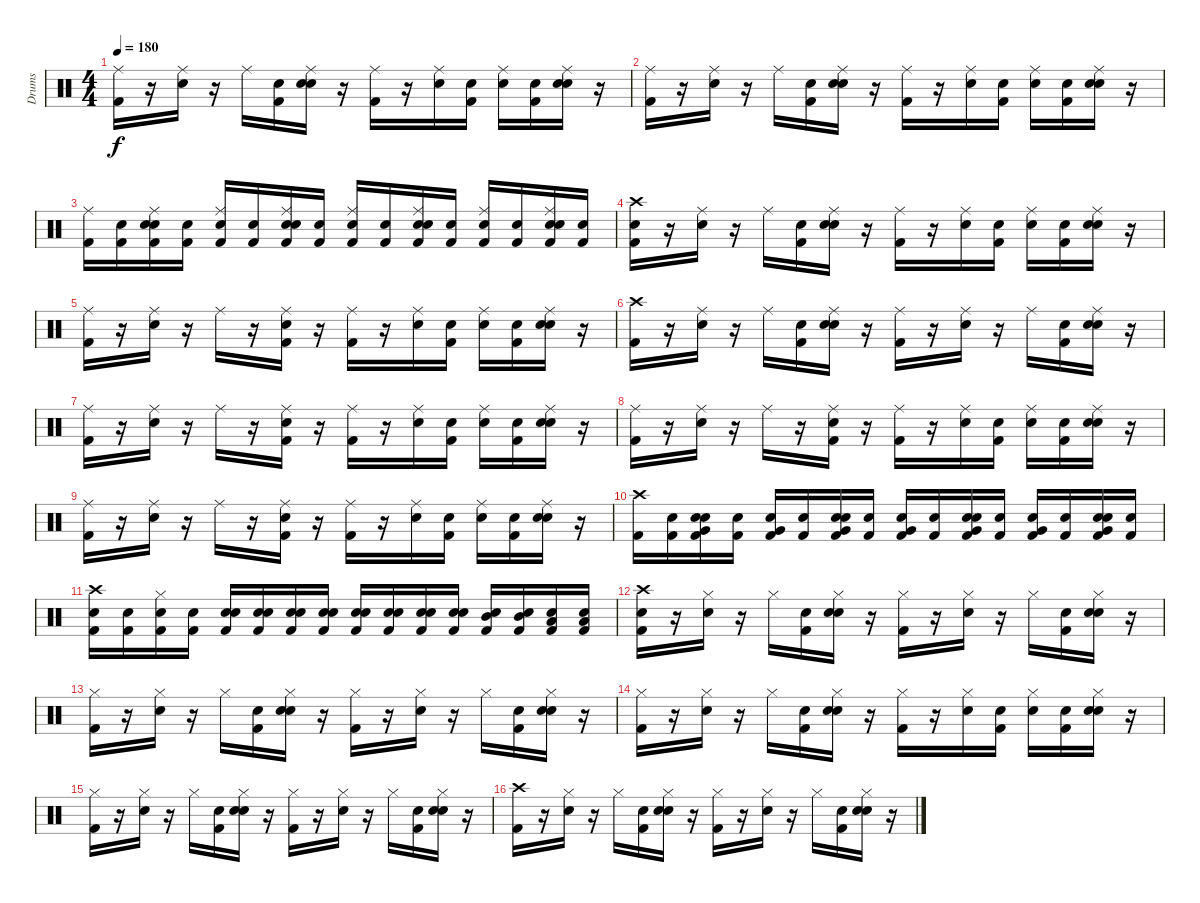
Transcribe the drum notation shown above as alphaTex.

\track ("Drums" "Drums") {instrument percussion}
\staff {score}
\articulation defaults
\ts (4 4)
\tempo 180
\clef neutral
\ks c
("Kick (hit) 2" "Ride (middle)").16{dy f} r.16 ("Snare (hit) 2" "Ride (middle)").16 r.16 "Ride (middle)".16 ("Snare (hit)" "Kick (hit) 2").16 ("Snare (hit)" "Snare (hit) 2" "Ride (middle)").16 r.16 ("Kick (hit) 2" "Ride (middle)").16 r.16 ("Snare (hit) 2" "Ride (middle)").16 ("Snare (hit)" "Kick (hit) 2").16 ("Snare (hit)" "Ride (middle)").16 ("Snare (hit)" "Kick (hit) 2").16 ("Snare (hit)" "Snare (hit) 2" "Ride (middle)").16 r.16 |
("Kick (hit) 2" "Ride (middle)").16 r.16 ("Snare (hit) 2" "Ride (middle)").16 r.16 "Ride (middle)".16 ("Snare (hit)" "Kick (hit) 2").16 ("Snare (hit)" "Snare (hit) 2" "Ride (middle)").16 r.16 ("Kick (hit) 2" "Ride (middle)").16 r.16 ("Snare (hit) 2" "Ride (middle)").16 ("Snare (hit)" "Kick (hit) 2").16 ("Snare (hit)" "Ride (middle)").16 ("Snare (hit)" "Kick (hit) 2").16 ("Snare (hit)" "Snare (hit) 2" "Ride (middle)").16 r.16 |
("Ride (middle)" "Kick (hit) 2").16 ("Snare (hit)" "Kick (hit) 2").16 ("Snare (hit)" "Snare (hit) 2" "Ride (middle)" "Kick (hit) 2").16 ("Snare (hit)" "Kick (hit) 2").16 ("Snare (hit)" "Ride (middle)" "Kick (hit) 2").16 ("Snare (hit)" "Kick (hit) 2").16 ("Snare (hit)" "Snare (hit) 2" "Ride (middle)" "Kick (hit) 2").16 ("Snare (hit)" "Kick (hit) 2").16 ("Snare (hit)" "Ride (middle)" "Kick (hit) 2").16 ("Snare (hit)" "Kick (hit) 2").16 ("Snare (hit)" "Ride (middle)" "Kick (hit) 2" "Snare (hit) 2").16 ("Snare (hit)" "Kick (hit) 2").16 ("Snare (hit)" "Ride (middle)" "Kick (hit) 2").16 ("Snare (hit)" "Kick (hit) 2").16 ("Snare (hit)" "Snare (hit) 2" "Ride (middle)" "Kick (hit) 2").16 ("Snare (hit)" "Kick (hit) 2").16 |
("Snare (hit)" "Crash high (hit)" "Kick (hit) 2").16 r.16 ("Snare (hit) 2" "Ride (middle)").16 r.16 "Ride (middle)".16 ("Snare (hit)" "Kick (hit) 2").16 ("Snare (hit)" "Snare (hit) 2" "Ride (middle)").16 r.16 ("Kick (hit) 2" "Ride (middle)").16 r.16 ("Snare (hit) 2" "Ride (middle)").16 ("Snare (hit)" "Kick (hit) 2").16 ("Snare (hit)" "Ride (middle)").16 ("Snare (hit)" "Kick (hit) 2").16 ("Snare (hit)" "Snare (hit) 2" "Ride (middle)").16 r.16 |
("Kick (hit) 2" "Ride (middle)").16 r.16 ("Snare (hit) 2" "Ride (middle)").16 r.16 "Ride (middle)".16 r.16 ("Kick (hit) 2" "Snare (hit) 2" "Ride (middle)").16 r.16 ("Kick (hit) 2" "Ride (middle)").16 r.16 ("Snare (hit) 2" "Ride (middle)").16 ("Snare (hit)" "Kick (hit) 2").16 ("Snare (hit)" "Ride (middle)").16 ("Snare (hit)" "Kick (hit) 2").16 ("Snare (hit)" "Ride (middle)" "Snare (hit) 2").16 r.16 |
("Kick (hit) 2" "Crash high (hit)").16 r.16 ("Snare (hit) 2" "Ride (middle)").16 r.16 "Ride (middle)".16 ("Snare (hit)" "Kick (hit) 2").16 ("Snare (hit)" "Snare (hit) 2" "Ride (middle)").16 r.16 ("Kick (hit) 2" "Ride (middle)").16 r.16 ("Snare (hit) 2" "Ride (middle)").16 r.16 "Ride (middle)".16 ("Snare (hit)" "Kick (hit) 2").16 ("Snare (hit)" "Snare (hit) 2" "Ride (middle)").16 r.16 |
("Kick (hit) 2" "Ride (middle)").16 r.16 ("Snare (hit) 2" "Ride (middle)").16 r.16 "Ride (middle)".16 r.16 ("Kick (hit) 2" "Snare (hit) 2" "Ride (middle)").16 r.16 ("Kick (hit) 2" "Ride (middle)").16 r.16 ("Snare (hit) 2" "Ride (middle)").16 ("Snare (hit)" "Kick (hit) 2").16 ("Snare (hit)" "Ride (middle)").16 ("Snare (hit)" "Kick (hit) 2").16 ("Snare (hit)" "Ride (middle)" "Snare (hit) 2").16 r.16 |
("Kick (hit) 2" "Ride (middle)").16 r.16 ("Snare (hit) 2" "Ride (middle)").16 r.16 "Ride (middle)".16 r.16 ("Kick (hit) 2" "Snare (hit) 2" "Ride (middle)").16 r.16 ("Kick (hit) 2" "Ride (middle)").16 r.16 ("Snare (hit) 2" "Ride (middle)").16 ("Snare (hit)" "Kick (hit) 2").16 ("Snare (hit)" "Ride (middle)").16 ("Snare (hit)" "Kick (hit) 2").16 ("Snare (hit)" "Ride (middle)" "Snare (hit) 2").16 r.16 |
("Kick (hit) 2" "Ride (middle)").16 r.16 ("Snare (hit) 2" "Ride (middle)").16 r.16 "Ride (middle)".16 r.16 ("Kick (hit) 2" "Snare (hit) 2" "Ride (middle)").16 r.16 ("Kick (hit) 2" "Ride (middle)").16 r.16 ("Snare (hit) 2" "Ride (middle)").16 ("Snare (hit)" "Kick (hit) 2").16 ("Snare (hit)" "Ride (middle)").16 ("Snare (hit)" "Kick (hit) 2").16 ("Snare (hit)" "Ride (middle)" "Snare (hit) 2").16 r.16 |
("Kick (hit) 2" "Crash high (hit)").16 ("Snare (hit)" "Kick (hit) 2").16 ("Snare (hit)" "Very Low Tom (hit)" "Snare (hit) 2" "Kick (hit) 2").16 ("Snare (hit)" "Kick (hit) 2").16 ("Snare (hit)" "Very Low Tom (hit)" "Kick (hit) 2").16 ("Snare (hit)" "Kick (hit) 2").16 ("Snare (hit)" "Very Low Tom (hit)" "Snare (hit) 2" "Kick (hit) 2").16 ("Snare (hit)" "Kick (hit) 2").16 ("Snare (hit)" "Very Low Tom (hit)" "Kick (hit) 2").16 ("Snare (hit)" "Kick (hit) 2").16 ("Snare (hit)" "Very Low Tom (hit)" "Snare (hit) 2" "Kick (hit) 2").16 ("Snare (hit)" "Kick (hit) 2").16 ("Snare (hit)" "Very Low Tom (hit)" "Kick (hit) 2").16 ("Snare (hit)" "Kick (hit) 2").16 ("Snare (hit)" "Very Low Tom (hit)" "Snare (hit) 2" "Kick (hit) 2").16 ("Snare (hit)" "Kick (hit) 2").16 |
("Snare (hit)" "Kick (hit) 2" "Crash high (hit)").16 ("Snare (hit)" "Kick (hit) 2").16 ("Snare (hit)" "Kick (hit) 2" "Hi-Hat (closed)").16 ("Snare (hit)" "Kick (hit) 2").16 ("Snare (hit)" "Snare (hit) 2" "Kick (hit) 2").16 ("Snare (hit)" "Snare (hit) 2" "Kick (hit) 2").16 ("Snare (hit)" "Snare (hit) 2" "Kick (hit) 2").16 ("Snare (hit)" "Snare (hit) 2" "Kick (hit) 2").16 ("Snare (hit)" "Snare (hit) 2" "Kick (hit) 2").16 ("Snare (hit)" "Snare (hit) 2" "Kick (hit) 2").16 ("Snare (hit)" "Snare (hit) 2" "Kick (hit) 2").16 ("Snare (hit)" "Snare (hit) 2" "Kick (hit) 2").16 ("Snare (hit)" "Mid Tom (hit)" "Kick (hit) 2").16 ("Snare (hit)" "Mid Tom (hit)" "Kick (hit) 2").16 ("Snare (hit)" "Low Tom (hit)" "Kick (hit) 2").16 ("Snare (hit)" "Low Tom (hit)" "Kick (hit) 2").16 |
("Snare (hit)" "Kick (hit) 2" "Crash high (hit)").16 r.16 ("Snare (hit) 2" "Hi-Hat (closed)").16 r.16 "Hi-Hat (closed)".16 ("Snare (hit)" "Kick (hit) 2").16 ("Snare (hit)" "Snare (hit) 2" "Hi-Hat (closed)").16 r.16 ("Kick (hit) 2" "Hi-Hat (closed)").16 r.16 ("Snare (hit) 2" "Hi-Hat (closed)").16 r.16 "Hi-Hat (closed)".16 ("Snare (hit)" "Kick (hit) 2").16 ("Snare (hit)" "Snare (hit) 2" "Hi-Hat (closed)").16 r.16 |
("Kick (hit) 2" "Hi-Hat (closed)").16 r.16 ("Snare (hit) 2" "Hi-Hat (closed)").16 r.16 "Hi-Hat (closed)".16 ("Snare (hit)" "Kick (hit) 2").16 ("Snare (hit)" "Snare (hit) 2" "Hi-Hat (closed)").16 r.16 ("Kick (hit) 2" "Hi-Hat (closed)").16 r.16 ("Snare (hit) 2" "Hi-Hat (closed)").16 r.16 "Hi-Hat (closed)".16 ("Snare (hit)" "Kick (hit) 2").16 ("Snare (hit)" "Snare (hit) 2" "Hi-Hat (closed)").16 r.16 |
("Kick (hit) 2" "Hi-Hat (closed)").16 r.16 ("Hi-Hat (closed)" "Snare (hit) 2").16 r.16 "Hi-Hat (closed)".16 ("Snare (hit)" "Kick (hit) 2").16 ("Snare (hit)" "Snare (hit) 2" "Hi-Hat (closed)").16 r.16 ("Kick (hit) 2" "Hi-Hat (closed)").16 r.16 ("Snare (hit) 2" "Hi-Hat (closed)").16 ("Snare (hit)" "Kick (hit) 2").16 ("Snare (hit)" "Hi-Hat (closed)").16 ("Snare (hit)" "Kick (hit) 2").16 ("Snare (hit)" "Snare (hit) 2" "Hi-Hat (closed)").16 r.16 |
("Kick (hit) 2" "Hi-Hat (closed)").16 r.16 ("Snare (hit) 2" "Hi-Hat (closed)").16 r.16 "Hi-Hat (closed)".16 ("Snare (hit)" "Kick (hit) 2").16 ("Snare (hit)" "Snare (hit) 2" "Hi-Hat (closed)").16 r.16 ("Kick (hit) 2" "Hi-Hat (closed)").16 r.16 ("Snare (hit) 2" "Hi-Hat (closed)").16 r.16 "Hi-Hat (closed)".16 ("Snare (hit)" "Kick (hit) 2").16 ("Snare (hit)" "Snare (hit) 2" "Hi-Hat (closed)").16 r.16 |
("Kick (hit) 2" "Crash high (hit)").16 r.16 ("Snare (hit) 2" "Hi-Hat (closed)").16 r.16 "Hi-Hat (closed)".16 ("Snare (hit)" "Kick (hit) 2").16 ("Snare (hit)" "Snare (hit) 2" "Hi-Hat (closed)").16 r.16 ("Kick (hit) 2" "Hi-Hat (closed)").16 r.16 ("Snare (hit) 2" "Hi-Hat (closed)").16 r.16 "Hi-Hat (closed)".16 ("Snare (hit)" "Kick (hit) 2").16 ("Snare (hit)" "Snare (hit) 2" "Hi-Hat (closed)").16 r.16
